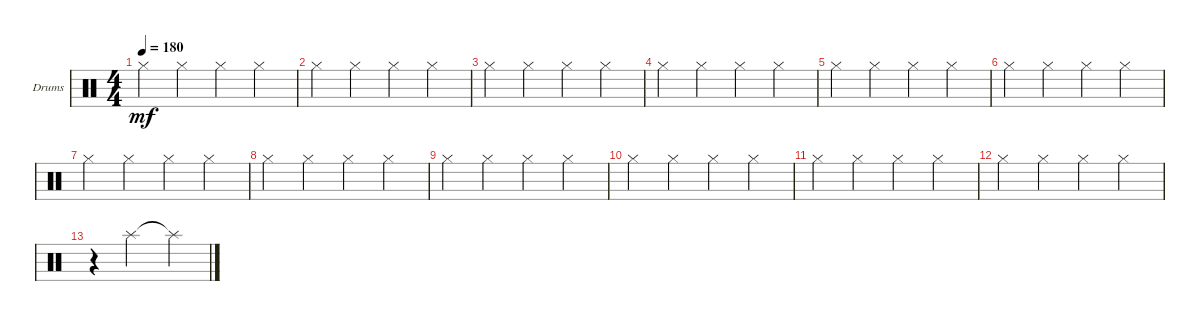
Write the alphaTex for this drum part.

\defaultSystemsLayout 4
\bracketExtendMode groupsimilarinstruments
\firstSystemTrackNameOrientation horizontal
\otherSystemsTrackNameOrientation horizontal
\track ("Drumkit" "Drums") {instrument percussion}
\staff {score}
\articulation defaults
\ts (4 4)
\tempo 180
\clef neutral
\scale
0.472222
\ks c "Hi-Hat (closed)".4{dy mf} "Hi-Hat (closed)".4 "Hi-Hat (closed)".4 "Hi-Hat (closed)".4
|
\scale
0.263889 "Hi-Hat (closed)".4 "Hi-Hat (closed)".4 "Hi-Hat (closed)".4 "Hi-Hat (closed)".4 |
\scale
0.263889 "Hi-Hat (closed)".4 "Hi-Hat (closed)".4 "Hi-Hat (closed)".4 "Hi-Hat (closed)".4 |
\scale
0.333333 "Hi-Hat (closed)".4 "Hi-Hat (closed)".4 "Hi-Hat (closed)".4 "Hi-Hat (closed)".4 |
\scale
0.333333 "Hi-Hat (closed)".4 "Hi-Hat (closed)".4 "Hi-Hat (closed)".4 "Hi-Hat (closed)".4 |
\scale
0.333333 "Hi-Hat (closed)".4 "Hi-Hat (closed)".4 "Hi-Hat (closed)".4 "Hi-Hat (closed)".4 |
\scale
0.333333 "Hi-Hat (closed)".4 "Hi-Hat (closed)".4 "Hi-Hat (closed)".4 "Hi-Hat (closed)".4 |
\scale
0.333333 "Hi-Hat (closed)".4 "Hi-Hat (closed)".4 "Hi-Hat (closed)".4 "Hi-Hat (closed)".4 |
\scale
0.333333 "Hi-Hat (closed)".4 "Hi-Hat (closed)".4 "Hi-Hat (closed)".4 "Hi-Hat (closed)".4 |
\scale
0.333333 "Hi-Hat (closed)".4 "Hi-Hat (closed)".4 "Hi-Hat (closed)".4 "Hi-Hat (closed)".4 |
\scale
0.333333 "Hi-Hat (closed)".4 "Hi-Hat (closed)".4 "Hi-Hat (closed)".4 "Hi-Hat (closed)".4 |
\scale
0.333333 "Hi-Hat (closed)".4 "Hi-Hat (closed)".4 "Hi-Hat (closed)".4 "Hi-Hat (closed)".4 |
\scale
0.333333 r.4 "Splash (hit)".2 "Splash (hit)"{t}.4
